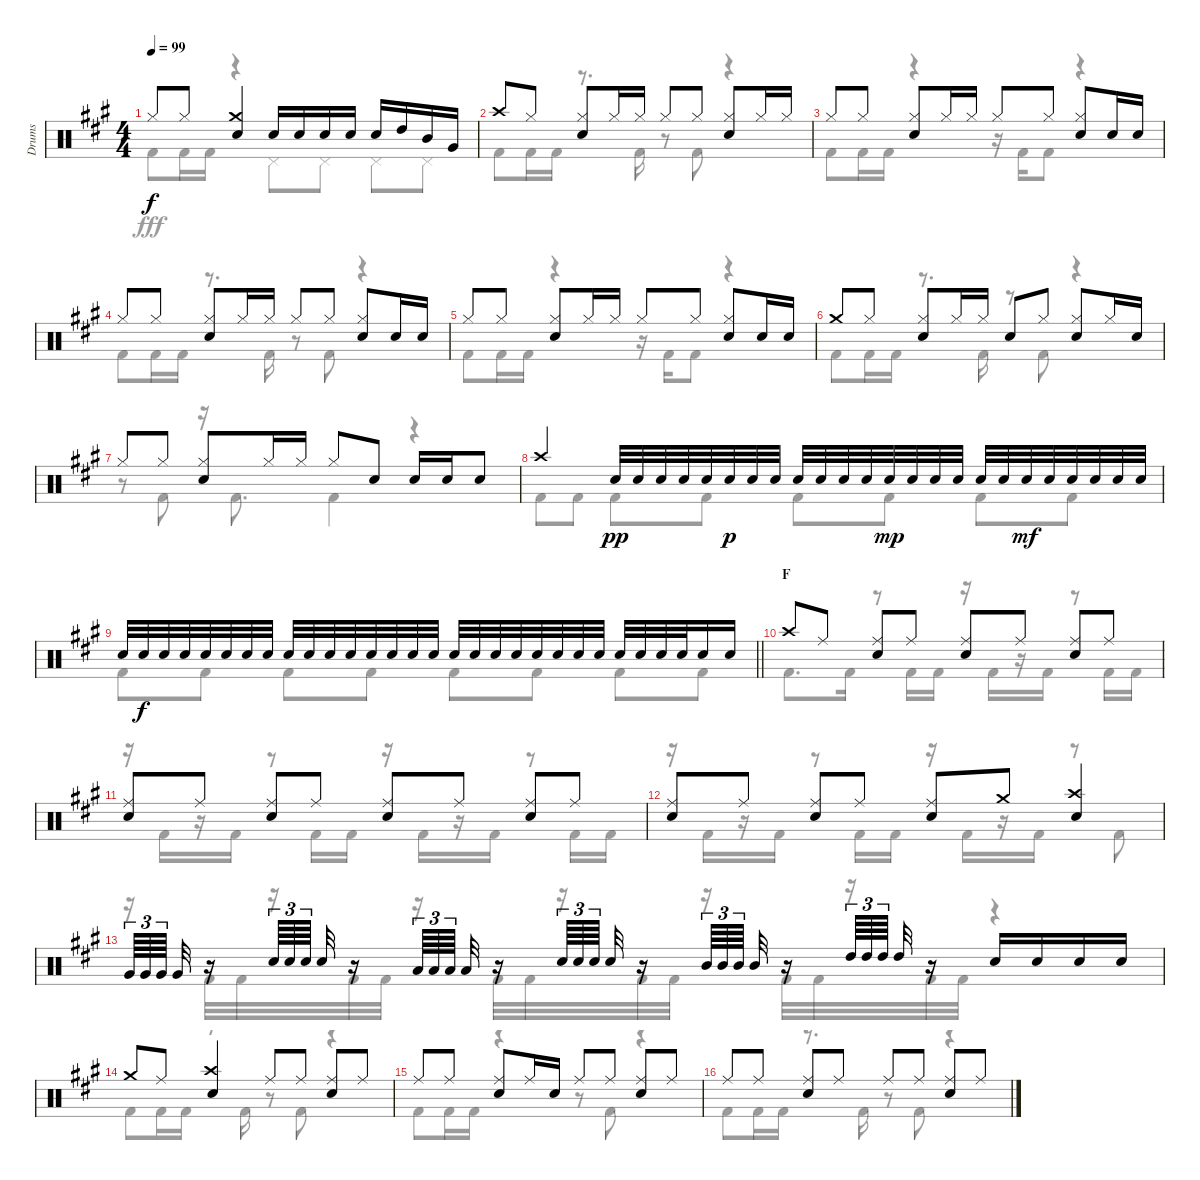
\track ("Drums" "Drums") {instrument percussion}
\staff {score}
\articulation defaults
\voice
\ts (4 4)
\tempo 99
\clef neutral
\ks a "Hi-Hat (closed)".8{dy f} "Hi-Hat (closed)".8
("Crash medium (hit)" "Snare (hit) 2").4 "Snare (hit) 2".16 "Snare (hit) 2".16 "Snare (hit) 2".16 "Snare (hit) 2".16 "Snare (hit) 2".16 "High Tom (hit)".16 "Mid Tom (hit)".16 "Very Low Tom (hit)".16 |
"Crash high (hit)".8 "Hi-Hat (closed)".8 ("Hi-Hat (closed)" "Snare (hit) 2").8 "Hi-Hat (closed)".16 "Hi-Hat (closed)".16 "Hi-Hat (closed)".8 "Hi-Hat (closed)".8 ("Hi-Hat (closed)" "Snare (hit) 2").8 "Hi-Hat (closed)".16 "Hi-Hat (closed)".16 |
"Hi-Hat (closed)".8 "Hi-Hat (closed)".8 ("Hi-Hat (closed)" "Snare (hit) 2").8 "Hi-Hat (closed)".16 "Hi-Hat (closed)".16 "Hi-Hat (closed)".8 "Hi-Hat (closed)".8 ("Hi-Hat (closed)" "Snare (hit) 2").8 "Snare (hit) 2".16 "Snare (hit) 2".16 |
"Hi-Hat (closed)".8 "Hi-Hat (closed)".8 ("Hi-Hat (closed)" "Snare (hit) 2").8 "Hi-Hat (closed)".16 "Hi-Hat (closed)".16 "Hi-Hat (closed)".8 "Hi-Hat (closed)".8 ("Hi-Hat (closed)" "Snare (hit) 2").8 "Snare (hit) 2".16 "Snare (hit) 2".16 |
"Hi-Hat (closed)".8 "Hi-Hat (closed)".8 ("Hi-Hat (closed)" "Snare (hit) 2").8 "Hi-Hat (closed)".16 "Hi-Hat (closed)".16 "Hi-Hat (closed)".8 "Hi-Hat (closed)".8 ("Hi-Hat (closed)" "Snare (hit) 2").8 "Snare (hit) 2".16 "Snare (hit) 2".16 |
"Crash medium (hit)".8 "Hi-Hat (closed)".8 ("Hi-Hat (closed)" "Snare (hit) 2").8 "Hi-Hat (closed)".16 "Hi-Hat (closed)".16 "Snare (hit)".8 "Hi-Hat (closed)".8 ("Hi-Hat (closed)" "Snare (hit) 2").8 "Hi-Hat (closed)".16 "Snare (hit) 2".16 |
"Hi-Hat (closed)".8 "Hi-Hat (closed)".8 ("Hi-Hat (closed)" "Snare (hit) 2").8 "Hi-Hat (closed)".16 "Hi-Hat (closed)".16 "Hi-Hat (closed)".8 "Snare (hit) 2".8 "Snare (hit) 2".16 "Snare (hit) 2".16 "Snare (hit) 2".8 |
"Crash high (hit)".4 "Snare (hit) 2".32{dy pp} "Snare (hit) 2".32 "Snare (hit) 2".32 "Snare (hit) 2".32 "Snare (hit) 2".32 "Snare (hit) 2".32{dy p} "Snare (hit) 2".32 "Snare (hit) 2".32 "Snare (hit) 2".32 "Snare (hit) 2".32 "Snare (hit) 2".32 "Snare (hit) 2".32 "Snare (hit) 2".32{dy mp} "Snare (hit) 2".32 "Snare (hit) 2".32 "Snare (hit) 2".32 "Snare (hit) 2".32 "Snare (hit) 2".32 "Snare (hit) 2".32{dy mf} "Snare (hit) 2".32 "Snare (hit) 2".32 "Snare (hit) 2".32 "Snare (hit) 2".32 "Snare (hit) 2".32 |
\barLineRight lightlight "Snare (hit) 2".32 "Snare (hit) 2".32{dy f} "Snare (hit) 2".32 "Snare (hit) 2".32 "Snare (hit) 2".32 "Snare (hit) 2".32 "Snare (hit) 2".32 "Snare (hit) 2".32 "Snare (hit) 2".32 "Snare (hit) 2".32 "Snare (hit) 2".32 "Snare (hit) 2".32 "Snare (hit) 2".32 "Snare (hit) 2".32 "Snare (hit) 2".32 "Snare (hit) 2".32 "Snare (hit) 2".32 "Snare (hit) 2".32 "Snare (hit) 2".32 "Snare (hit) 2".32 "Snare (hit) 2".32 "Snare (hit) 2".32 "Snare (hit) 2".32 "Snare (hit) 2".32 "Snare (hit) 2".32 "Snare (hit) 2".32 "Snare (hit) 2".32 "Snare (hit) 2".32 "Snare (hit) 2".16 "Snare (hit) 2".16
|
\section ("" "F")
"Crash high (hit)".8 "Ride (middle)".8 ("Ride (middle)" "Snare (hit) 2").8 "Ride (middle)".8 ("Ride (middle)" "Snare (hit) 2").8 "Ride (middle)".8 ("Ride (middle)" "Snare (hit) 2").8 "Ride (middle)".8 |
("Ride (middle)" "Snare (hit) 2").8 "Ride (middle)".8 ("Ride (middle)" "Snare (hit) 2").8 "Ride (middle)".8 ("Ride (middle)" "Snare (hit) 2").8 "Ride (middle)".8 ("Ride (middle)" "Snare (hit) 2").8 "Ride (middle)".8 |
("Ride (middle)" "Snare (hit) 2").8 "Ride (middle)".8 ("Ride (middle)" "Snare (hit) 2").8 "Ride (middle)".8 ("Ride (middle)" "Snare (hit) 2").8 "Crash medium (hit)".8 ("Crash high (hit)" "Snare (hit) 2").4 |
"Very Low Tom (hit)".64{tu (3 2)} "Very Low Tom (hit)".64{tu (3 2)} "Very Low Tom (hit)".64{tu (3 2) beam splitsecondary} "Very Low Tom (hit)".32 r.16 "Snare (hit) 2".64{tu (3 2)} "Snare (hit) 2".64{tu (3 2)} "Snare (hit) 2".64{tu (3 2) beam splitsecondary} "Snare (hit) 2".32 r.16 "Low Tom (hit)".64{tu (3 2)} "Low Tom (hit)".64{tu (3 2)} "Low Tom (hit)".64{tu (3 2) beam splitsecondary} "Low Tom (hit)".32 r.16 "Snare (hit) 2".64{tu (3 2)} "Snare (hit) 2".64{tu (3 2)} "Snare (hit) 2".64{tu (3 2) beam splitsecondary} "Snare (hit) 2".32 r.16 "Mid Tom (hit)".64{tu (3 2)} "Mid Tom (hit)".64{tu (3 2)} "Mid Tom (hit)".64{tu (3 2) beam splitsecondary} "Mid Tom (hit)".32 r.16 "High Tom (hit)".64{tu (3 2)} "High Tom (hit)".64{tu (3 2)} "High Tom (hit)".64{tu (3 2) beam splitsecondary} "High Tom (hit)".32 r.16 "Snare (hit) 2".16 "Snare (hit) 2".16 "Snare (hit) 2".16 "Snare (hit) 2".16 |
"Crash medium (hit)".8 "Ride (middle)".8 ("Crash high (hit)" "Snare (hit) 2").4 "Ride (middle)".8 "Ride (middle)".8 ("Ride (middle)" "Snare (hit) 2").8 "Ride (middle)".8 |
"Ride (middle)".8 "Ride (middle)".8 ("Ride (middle)" "Snare (hit) 2").8 "Ride (middle)".16 "Snare (hit) 2".16 "Ride (middle)".8 "Ride (middle)".8 ("Ride (middle)" "Snare (hit) 2").8 "Ride (middle)".8 |
"Ride (middle)".8 "Ride (middle)".8 ("Ride (middle)" "Snare (hit) 2").8 "Ride (middle)".8 "Ride (middle)".8 "Ride (middle)".8 ("Ride (middle)" "Snare (hit) 2").8 "Ride (middle)".8
\voice
\clef neutral
\ottava regular
\simile none
\ks a "Kick (hit) 2".8{dy fff} "Kick (hit) 2".16 "Kick (hit) 2".16
r.4 "Pedal Hi-Hat (hit)".8 "Pedal Hi-Hat (hit)".8 "Pedal Hi-Hat (hit)".8 "Pedal Hi-Hat (hit)".8 |
"Kick (hit) 2".8 "Kick (hit) 2".16 "Kick (hit) 2".16 r.8{d} "Kick (hit) 2".16 r.8 "Kick (hit) 2".8 r.4 |
"Kick (hit) 2".8 "Kick (hit) 2".16 "Kick (hit) 2".16 r.4 r.16 "Kick (hit) 2".16 "Kick (hit) 2".8 r.4 |
"Kick (hit) 2".8 "Kick (hit) 2".16 "Kick (hit) 2".16 r.8{d} "Kick (hit) 2".16 r.8 "Kick (hit) 2".8 r.4 |
"Kick (hit) 2".8 "Kick (hit) 2".16 "Kick (hit) 2".16 r.4 r.16 "Kick (hit) 2".16 "Kick (hit) 2".8 r.4 |
"Kick (hit) 2".8 "Kick (hit) 2".16 "Kick (hit) 2".16 r.8{d} "Kick (hit) 2".16 r.8 "Kick (hit) 2".8 r.4 |
r.8 "Kick (hit) 2".8 r.16 "Kick (hit) 2".8{d} "Kick (hit) 2".4 r.4 |
"Kick (hit) 2".8 "Kick (hit) 2".8 "Kick (hit) 2".8 "Kick (hit) 2".8 "Kick (hit) 2".8 "Kick (hit) 2".8 "Kick (hit) 2".8 "Kick (hit) 2".8 |
\barLineRight lightlight "Kick (hit) 2".8 "Kick (hit) 2".8 "Kick (hit) 2".8 "Kick (hit) 2".8 "Kick (hit) 2".8 "Kick (hit) 2".8 "Kick (hit) 2".8 "Kick (hit) 2".8
|
"Kick (hit) 2".8{d} "Kick (hit) 2".16 r.8 "Kick (hit) 2".16 "Kick (hit) 2".16 r.16 "Kick (hit) 2".16 r.16 "Kick (hit) 2".16 r.8 "Kick (hit) 2".16 "Kick (hit) 2".16 |
r.16 "Kick (hit) 2".16 r.16 "Kick (hit) 2".16 r.8 "Kick (hit) 2".16 "Kick (hit) 2".16 r.16 "Kick (hit) 2".16 r.16 "Kick (hit) 2".16 r.8 "Kick (hit) 2".16 "Kick (hit) 2".16 |
r.16 "Kick (hit) 2".16 r.16 "Kick (hit) 2".16 r.8 "Kick (hit) 2".16 "Kick (hit) 2".16 r.16 "Kick (hit) 2".16 r.16 "Kick (hit) 2".16 r.8 "Kick (hit) 2".8 |
r.16 "Kick (hit) 2".32 "Kick (hit) 2".32 r.16 "Kick (hit) 2".32 "Kick (hit) 2".32 r.16 "Kick (hit) 2".32 "Kick (hit) 2".32 r.16 "Kick (hit) 2".32 "Kick (hit) 2".32 r.16 "Kick (hit) 2".32 "Kick (hit) 2".32 r.16 "Kick (hit) 2".32 "Kick (hit) 2".32 r.4 |
"Kick (hit) 2".8 "Kick (hit) 2".16 "Kick (hit) 2".16 r.8{d} "Kick (hit) 2".16 r.8 "Kick (hit) 2".8 r.4 |
"Kick (hit) 2".8 "Kick (hit) 2".16 "Kick (hit) 2".16 r.4 r.8 "Kick (hit) 2".8 r.4 |
"Kick (hit) 2".8 "Kick (hit) 2".16 "Kick (hit) 2".16 r.8{d} "Kick (hit) 2".16 r.8 "Kick (hit) 2".8 r.4
